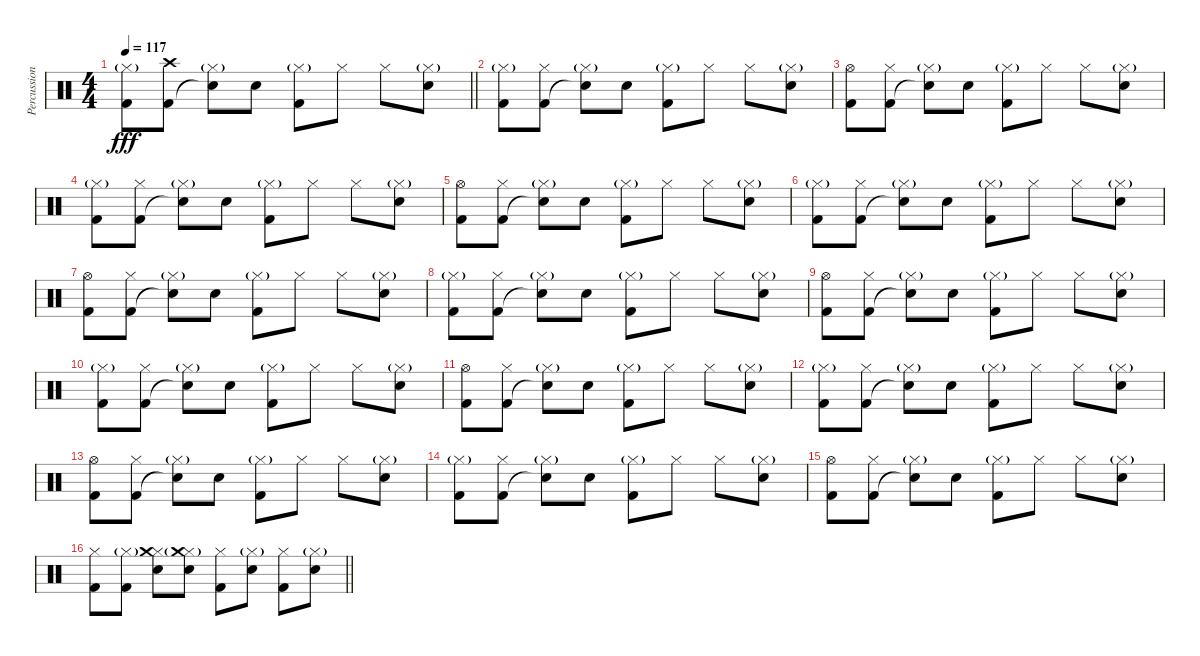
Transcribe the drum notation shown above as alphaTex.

\track ("Percussion 1" "Percussion") {instrument percussion}
\staff {score}
\articulation defaults
\ts (4 4)
\tempo 117
\clef neutral
\barLineRight lightlight
\ks c
("Hi-Hat (closed)"{g} "Kick (hit) 2").8{dy fff} ("Crash high (hit)" "Kick (hit) 2").8 ("Hi-Hat (closed)"{g} "Snare (hit)"{t}).8 "Electric Snare (hit)".8 ("Hi-Hat (closed)"{g} "Kick (hit) 2").8 "Hi-Hat (closed)".8 "Hi-Hat (closed)".8 ("Hi-Hat (closed)"{g} "Electric Snare (hit)").8 |
("Hi-Hat (closed)"{g} "Kick (hit) 2").8 ("Hi-Hat (closed)" "Kick (hit) 2").8 ("Hi-Hat (closed)"{g} "Snare (hit)"{t}).8 "Electric Snare (hit)".8 ("Hi-Hat (closed)"{g} "Kick (hit) 2").8 "Hi-Hat (closed)".8 "Hi-Hat (closed)".8 ("Hi-Hat (closed)"{g} "Electric Snare (hit)").8 |
("Hi-Hat (open)" "Kick (hit) 2").8 ("Hi-Hat (closed)" "Kick (hit) 2").8 ("Hi-Hat (closed)"{g} "Snare (hit)"{t}).8 "Electric Snare (hit)".8 ("Hi-Hat (closed)"{g} "Kick (hit) 2").8 "Hi-Hat (closed)".8 "Hi-Hat (closed)".8 ("Hi-Hat (closed)"{g} "Electric Snare (hit)").8 |
("Hi-Hat (closed)"{g} "Kick (hit) 2").8 ("Hi-Hat (closed)" "Kick (hit) 2").8 ("Hi-Hat (closed)"{g} "Snare (hit)"{t}).8 "Electric Snare (hit)".8 ("Hi-Hat (closed)"{g} "Kick (hit) 2").8 "Hi-Hat (closed)".8 "Hi-Hat (closed)".8 ("Hi-Hat (closed)"{g} "Electric Snare (hit)").8 |
("Hi-Hat (open)" "Kick (hit) 2").8 ("Hi-Hat (closed)" "Kick (hit) 2").8 ("Hi-Hat (closed)"{g} "Snare (hit)"{t}).8 "Electric Snare (hit)".8 ("Hi-Hat (closed)"{g} "Kick (hit) 2").8 "Hi-Hat (closed)".8 "Hi-Hat (closed)".8 ("Hi-Hat (closed)"{g} "Electric Snare (hit)").8 |
("Hi-Hat (closed)"{g} "Kick (hit) 2").8 ("Hi-Hat (closed)" "Kick (hit) 2").8 ("Hi-Hat (closed)"{g} "Snare (hit)"{t}).8 "Electric Snare (hit)".8 ("Hi-Hat (closed)"{g} "Kick (hit) 2").8 "Hi-Hat (closed)".8 "Hi-Hat (closed)".8 ("Hi-Hat (closed)"{g} "Electric Snare (hit)").8 |
("Hi-Hat (open)" "Kick (hit) 2").8 ("Hi-Hat (closed)" "Kick (hit) 2").8 ("Hi-Hat (closed)"{g} "Snare (hit)"{t}).8 "Electric Snare (hit)".8 ("Hi-Hat (closed)"{g} "Kick (hit) 2").8 "Hi-Hat (closed)".8 "Hi-Hat (closed)".8 ("Hi-Hat (closed)"{g} "Electric Snare (hit)").8 |
("Hi-Hat (closed)"{g} "Kick (hit) 2").8 ("Hi-Hat (closed)" "Kick (hit) 2").8 ("Hi-Hat (closed)"{g} "Snare (hit)"{t}).8 "Electric Snare (hit)".8 ("Hi-Hat (closed)"{g} "Kick (hit) 2").8 "Hi-Hat (closed)".8 "Hi-Hat (closed)".8 ("Hi-Hat (closed)"{g} "Electric Snare (hit)").8 |
("Hi-Hat (open)" "Kick (hit) 2").8 ("Hi-Hat (closed)" "Kick (hit) 2").8 ("Hi-Hat (closed)"{g} "Snare (hit)"{t}).8 "Electric Snare (hit)".8 ("Hi-Hat (closed)"{g} "Kick (hit) 2").8 "Hi-Hat (closed)".8 "Hi-Hat (closed)".8 ("Hi-Hat (closed)"{g} "Electric Snare (hit)").8 |
("Hi-Hat (closed)"{g} "Kick (hit) 2").8 ("Hi-Hat (closed)" "Kick (hit) 2").8 ("Hi-Hat (closed)"{g} "Snare (hit)"{t}).8 "Electric Snare (hit)".8 ("Hi-Hat (closed)"{g} "Kick (hit) 2").8 "Hi-Hat (closed)".8 "Hi-Hat (closed)".8 ("Hi-Hat (closed)"{g} "Electric Snare (hit)").8 |
("Hi-Hat (open)" "Kick (hit) 2").8 ("Hi-Hat (closed)" "Kick (hit) 2").8 ("Hi-Hat (closed)"{g} "Snare (hit)"{t}).8 "Electric Snare (hit)".8 ("Hi-Hat (closed)"{g} "Kick (hit) 2").8 "Hi-Hat (closed)".8 "Hi-Hat (closed)".8 ("Hi-Hat (closed)"{g} "Electric Snare (hit)").8 |
("Hi-Hat (closed)"{g} "Kick (hit) 2").8 ("Hi-Hat (closed)" "Kick (hit) 2").8 ("Hi-Hat (closed)"{g} "Snare (hit)"{t}).8 "Electric Snare (hit)".8 ("Hi-Hat (closed)"{g} "Kick (hit) 2").8 "Hi-Hat (closed)".8 "Hi-Hat (closed)".8 ("Hi-Hat (closed)"{g} "Electric Snare (hit)").8 |
("Hi-Hat (open)" "Kick (hit) 2").8 ("Hi-Hat (closed)" "Kick (hit) 2").8 ("Hi-Hat (closed)"{g} "Snare (hit)"{t}).8 "Electric Snare (hit)".8 ("Hi-Hat (closed)"{g} "Kick (hit) 2").8 "Hi-Hat (closed)".8 "Hi-Hat (closed)".8 ("Hi-Hat (closed)"{g} "Electric Snare (hit)").8 |
("Hi-Hat (closed)"{g} "Kick (hit) 2").8 ("Hi-Hat (closed)" "Kick (hit) 2").8 ("Hi-Hat (closed)"{g} "Snare (hit)"{t}).8 "Electric Snare (hit)".8 ("Hi-Hat (closed)"{g} "Kick (hit) 2").8 "Hi-Hat (closed)".8 "Hi-Hat (closed)".8 ("Hi-Hat (closed)"{g} "Electric Snare (hit)").8 |
("Hi-Hat (open)" "Kick (hit) 2").8 ("Hi-Hat (closed)" "Kick (hit) 2").8 ("Hi-Hat (closed)"{g} "Snare (hit)"{t}).8 "Electric Snare (hit)".8 ("Hi-Hat (closed)"{g} "Kick (hit) 2").8 "Hi-Hat (closed)".8 "Hi-Hat (closed)".8 ("Hi-Hat (closed)"{g} "Electric Snare (hit)").8 |
\barLineRight lightlight
("Hi-Hat (closed)" "Kick (hit) 2").8 ("Hi-Hat (closed)"{g} "Kick (hit) 2").8 ("Hi-Hat (closed)" "Crash medium (hit)" "Electric Snare (hit)").8 ("Hi-Hat (closed)"{g} "Crash medium (hit)" "Electric Snare (hit)").8 ("Hi-Hat (closed)" "Kick (hit) 2").8 ("Electric Snare (hit)" "Hi-Hat (closed)"{g}).8 ("Hi-Hat (closed)" "Kick (hit) 2").8 ("Hi-Hat (closed)"{g} "Electric Snare (hit)").8
